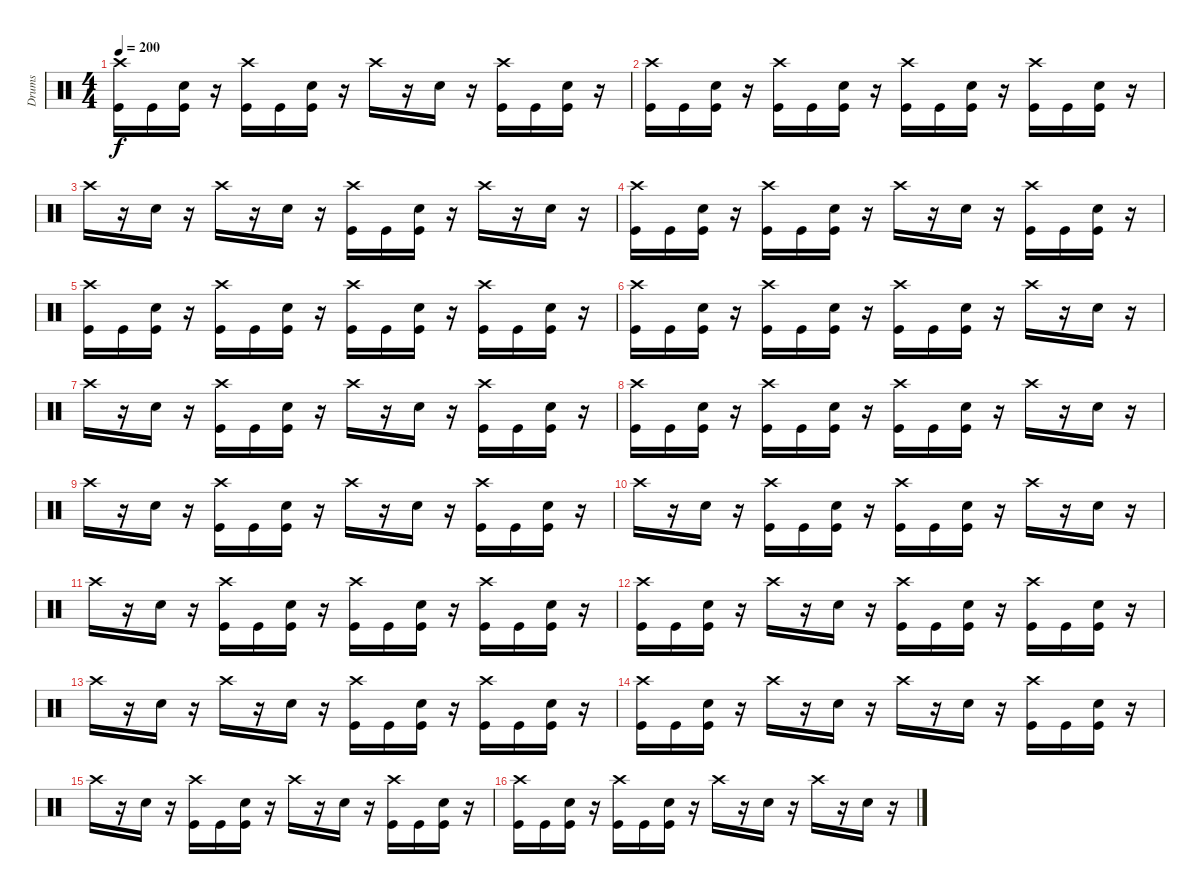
\track ("Drums" "Drums") {instrument percussion}
\staff {score}
\articulation defaults
\ts (4 4)
\tempo 200
\clef neutral
\ks c
("Crash high (hit)" "Kick (hit)").16{dy f} "Kick (hit)".16 ("Snare (hit) 2" "Kick (hit)").16 r.16 ("Crash high (hit)" "Kick (hit)").16 "Kick (hit)".16 ("Snare (hit) 2" "Kick (hit)").16 r.16 "Crash high (hit)".16 r.16 "Snare (hit) 2".16 r.16 ("Crash high (hit)" "Kick (hit)").16 "Kick (hit)".16 ("Snare (hit) 2" "Kick (hit)").16 r.16 |
("Crash high (hit)" "Kick (hit)").16 "Kick (hit)".16 ("Snare (hit) 2" "Kick (hit)").16 r.16 ("Crash high (hit)" "Kick (hit)").16 "Kick (hit)".16 ("Snare (hit) 2" "Kick (hit)").16 r.16 ("Crash high (hit)" "Kick (hit)").16 "Kick (hit)".16 ("Snare (hit) 2" "Kick (hit)").16 r.16 ("Crash high (hit)" "Kick (hit)").16 "Kick (hit)".16 ("Snare (hit) 2" "Kick (hit)").16 r.16 |
"Crash high (hit)".16 r.16 "Snare (hit) 2".16 r.16 "Crash high (hit)".16 r.16 "Snare (hit) 2".16 r.16 ("Crash high (hit)" "Kick (hit)").16 "Kick (hit)".16 ("Snare (hit) 2" "Kick (hit)").16 r.16 "Crash high (hit)".16 r.16 "Snare (hit) 2".16 r.16 |
("Crash high (hit)" "Kick (hit)").16 "Kick (hit)".16 ("Snare (hit) 2" "Kick (hit)").16 r.16 ("Crash high (hit)" "Kick (hit)").16 "Kick (hit)".16 ("Snare (hit) 2" "Kick (hit)").16 r.16 "Crash high (hit)".16 r.16 "Snare (hit) 2".16 r.16 ("Crash high (hit)" "Kick (hit)").16 "Kick (hit)".16 ("Snare (hit) 2" "Kick (hit)").16 r.16 |
("Crash high (hit)" "Kick (hit)").16 "Kick (hit)".16 ("Snare (hit) 2" "Kick (hit)").16 r.16 ("Crash high (hit)" "Kick (hit)").16 "Kick (hit)".16 ("Snare (hit) 2" "Kick (hit)").16 r.16 ("Crash high (hit)" "Kick (hit)").16 "Kick (hit)".16 ("Snare (hit) 2" "Kick (hit)").16 r.16 ("Crash high (hit)" "Kick (hit)").16 "Kick (hit)".16 ("Snare (hit) 2" "Kick (hit)").16 r.16 |
("Crash high (hit)" "Kick (hit)").16 "Kick (hit)".16 ("Snare (hit) 2" "Kick (hit)").16 r.16 ("Crash high (hit)" "Kick (hit)").16 "Kick (hit)".16 ("Snare (hit) 2" "Kick (hit)").16 r.16 ("Crash high (hit)" "Kick (hit)").16 "Kick (hit)".16 ("Snare (hit) 2" "Kick (hit)").16 r.16 "Crash high (hit)".16 r.16 "Snare (hit) 2".16 r.16 |
"Crash high (hit)".16 r.16 "Snare (hit) 2".16 r.16 ("Crash high (hit)" "Kick (hit)").16 "Kick (hit)".16 ("Snare (hit) 2" "Kick (hit)").16 r.16 "Crash high (hit)".16 r.16 "Snare (hit) 2".16 r.16 ("Crash high (hit)" "Kick (hit)").16 "Kick (hit)".16 ("Snare (hit) 2" "Kick (hit)").16 r.16 |
("Crash high (hit)" "Kick (hit)").16 "Kick (hit)".16 ("Snare (hit) 2" "Kick (hit)").16 r.16 ("Crash high (hit)" "Kick (hit)").16 "Kick (hit)".16 ("Snare (hit) 2" "Kick (hit)").16 r.16 ("Crash high (hit)" "Kick (hit)").16 "Kick (hit)".16 ("Snare (hit) 2" "Kick (hit)").16 r.16 "Crash high (hit)".16 r.16 "Snare (hit) 2".16 r.16 |
"Crash high (hit)".16 r.16 "Snare (hit) 2".16 r.16 ("Crash high (hit)" "Kick (hit)").16 "Kick (hit)".16 ("Snare (hit) 2" "Kick (hit)").16 r.16 "Crash high (hit)".16 r.16 "Snare (hit) 2".16 r.16 ("Crash high (hit)" "Kick (hit)").16 "Kick (hit)".16 ("Snare (hit) 2" "Kick (hit)").16 r.16 |
"Crash high (hit)".16 r.16 "Snare (hit) 2".16 r.16 ("Crash high (hit)" "Kick (hit)").16 "Kick (hit)".16 ("Snare (hit) 2" "Kick (hit)").16 r.16 ("Crash high (hit)" "Kick (hit)").16 "Kick (hit)".16 ("Snare (hit) 2" "Kick (hit)").16 r.16 "Crash high (hit)".16 r.16 "Snare (hit) 2".16 r.16 |
"Crash high (hit)".16 r.16 "Snare (hit) 2".16 r.16 ("Crash high (hit)" "Kick (hit)").16 "Kick (hit)".16 ("Snare (hit) 2" "Kick (hit)").16 r.16 ("Crash high (hit)" "Kick (hit)").16 "Kick (hit)".16 ("Snare (hit) 2" "Kick (hit)").16 r.16 ("Crash high (hit)" "Kick (hit)").16 "Kick (hit)".16 ("Snare (hit) 2" "Kick (hit)").16 r.16 |
("Crash high (hit)" "Kick (hit)").16 "Kick (hit)".16 ("Snare (hit) 2" "Kick (hit)").16 r.16 "Crash high (hit)".16 r.16 "Snare (hit) 2".16 r.16 ("Crash high (hit)" "Kick (hit)").16 "Kick (hit)".16 ("Snare (hit) 2" "Kick (hit)").16 r.16 ("Crash high (hit)" "Kick (hit)").16 "Kick (hit)".16 ("Snare (hit) 2" "Kick (hit)").16 r.16 |
"Crash high (hit)".16 r.16 "Snare (hit) 2".16 r.16 "Crash high (hit)".16 r.16 "Snare (hit) 2".16 r.16 ("Crash high (hit)" "Kick (hit)").16 "Kick (hit)".16 ("Snare (hit) 2" "Kick (hit)").16 r.16 ("Crash high (hit)" "Kick (hit)").16 "Kick (hit)".16 ("Snare (hit) 2" "Kick (hit)").16 r.16 |
("Crash high (hit)" "Kick (hit)").16 "Kick (hit)".16 ("Snare (hit) 2" "Kick (hit)").16 r.16 "Crash high (hit)".16 r.16 "Snare (hit) 2".16 r.16 "Crash high (hit)".16 r.16 "Snare (hit) 2".16 r.16 ("Crash high (hit)" "Kick (hit)").16 "Kick (hit)".16 ("Snare (hit) 2" "Kick (hit)").16 r.16 |
"Crash high (hit)".16 r.16 "Snare (hit) 2".16 r.16 ("Crash high (hit)" "Kick (hit)").16 "Kick (hit)".16 ("Snare (hit) 2" "Kick (hit)").16 r.16 "Crash high (hit)".16 r.16 "Snare (hit) 2".16 r.16 ("Crash high (hit)" "Kick (hit)").16 "Kick (hit)".16 ("Snare (hit) 2" "Kick (hit)").16 r.16 |
("Crash high (hit)" "Kick (hit)").16 "Kick (hit)".16 ("Snare (hit) 2" "Kick (hit)").16 r.16 ("Crash high (hit)" "Kick (hit)").16 "Kick (hit)".16 ("Snare (hit) 2" "Kick (hit)").16 r.16 "Crash high (hit)".16 r.16 "Snare (hit) 2".16 r.16 "Crash high (hit)".16 r.16 "Snare (hit) 2".16 r.16
